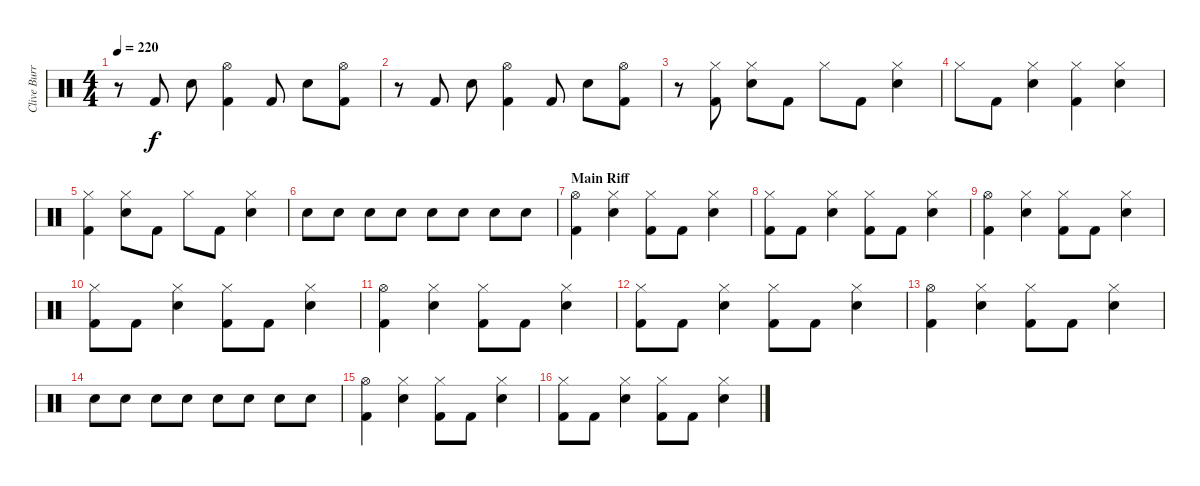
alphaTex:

\track ("Clive Burr (Drums)" "Clive Burr") {instrument percussion}
\staff {score}
\articulation defaults
\ts (4 4)
\tempo 220
\clef neutral
\ks c
r.8{dy f} "Kick (hit) 2".8 "Electric Snare (hit)".8 ("Hi-Hat (open)" "Kick (hit) 2").4 "Kick (hit) 2".8 "Electric Snare (hit)".8 ("Hi-Hat (open)" "Kick (hit) 2").8 |
r.8 "Kick (hit) 2".8 "Electric Snare (hit)".8 ("Hi-Hat (open)" "Kick (hit) 2").4 "Kick (hit) 2".8 "Electric Snare (hit)".8 ("Hi-Hat (open)" "Kick (hit) 2").8 |
r.8 ("Hi-Hat (closed)" "Kick (hit) 2").8 ("Electric Snare (hit)" "Hi-Hat (closed)").8 "Kick (hit) 2".8 "Hi-Hat (closed)".8 "Kick (hit) 2".8 ("Electric Snare (hit)" "Hi-Hat (closed)").4 |
"Hi-Hat (closed)".8 "Kick (hit) 2".8 ("Electric Snare (hit)" "Hi-Hat (closed)").4 ("Hi-Hat (closed)" "Kick (hit) 2").4 ("Electric Snare (hit)" "Hi-Hat (closed)").4 |
("Hi-Hat (closed)" "Kick (hit) 2").4 ("Electric Snare (hit)" "Hi-Hat (closed)").8 "Kick (hit) 2".8 "Hi-Hat (closed)".8 "Kick (hit) 2".8 ("Electric Snare (hit)" "Hi-Hat (closed)").4 |
"Electric Snare (hit)".8 "Electric Snare (hit)".8 "Electric Snare (hit)".8 "Electric Snare (hit)".8 "Electric Snare (hit)".8 "Electric Snare (hit)".8 "Electric Snare (hit)".8 "Electric Snare (hit)".8 |
\section ("" "Main Riff")
("Hi-Hat (open)" "Kick (hit) 2").4 ("Electric Snare (hit)" "Hi-Hat (closed)").4 ("Hi-Hat (closed)" "Kick (hit) 2").8 "Kick (hit) 2".8 ("Electric Snare (hit)" "Hi-Hat (closed)").4 |
("Hi-Hat (closed)" "Kick (hit) 2").8 "Kick (hit) 2".8 ("Electric Snare (hit)" "Hi-Hat (closed)").4 ("Hi-Hat (closed)" "Kick (hit) 2").8 "Kick (hit) 2".8 ("Electric Snare (hit)" "Hi-Hat (closed)").4 |
("Hi-Hat (open)" "Kick (hit) 2").4 ("Electric Snare (hit)" "Hi-Hat (closed)").4 ("Hi-Hat (closed)" "Kick (hit) 2").8 "Kick (hit) 2".8 ("Electric Snare (hit)" "Hi-Hat (closed)").4 |
("Hi-Hat (closed)" "Kick (hit) 2").8 "Kick (hit) 2".8 ("Electric Snare (hit)" "Hi-Hat (closed)").4 ("Hi-Hat (closed)" "Kick (hit) 2").8 "Kick (hit) 2".8 ("Electric Snare (hit)" "Hi-Hat (closed)").4 |
("Hi-Hat (open)" "Kick (hit) 2").4 ("Electric Snare (hit)" "Hi-Hat (closed)").4 ("Hi-Hat (closed)" "Kick (hit) 2").8 "Kick (hit) 2".8 ("Electric Snare (hit)" "Hi-Hat (closed)").4 |
("Hi-Hat (closed)" "Kick (hit) 2").8 "Kick (hit) 2".8 ("Electric Snare (hit)" "Hi-Hat (closed)").4 ("Hi-Hat (closed)" "Kick (hit) 2").8 "Kick (hit) 2".8 ("Electric Snare (hit)" "Hi-Hat (closed)").4 |
("Hi-Hat (open)" "Kick (hit) 2").4 ("Electric Snare (hit)" "Hi-Hat (closed)").4 ("Hi-Hat (closed)" "Kick (hit) 2").8 "Kick (hit) 2".8 ("Electric Snare (hit)" "Hi-Hat (closed)").4 |
"Electric Snare (hit)".8 "Electric Snare (hit)".8 "Electric Snare (hit)".8 "Electric Snare (hit)".8 "Electric Snare (hit)".8 "Electric Snare (hit)".8 "Electric Snare (hit)".8 "Electric Snare (hit)".8 |
("Hi-Hat (open)" "Kick (hit) 2").4 ("Electric Snare (hit)" "Hi-Hat (closed)").4 ("Hi-Hat (closed)" "Kick (hit) 2").8 "Kick (hit) 2".8 ("Electric Snare (hit)" "Hi-Hat (closed)").4 |
("Hi-Hat (closed)" "Kick (hit) 2").8 "Kick (hit) 2".8 ("Electric Snare (hit)" "Hi-Hat (closed)").4 ("Hi-Hat (closed)" "Kick (hit) 2").8 "Kick (hit) 2".8 ("Electric Snare (hit)" "Hi-Hat (closed)").4
